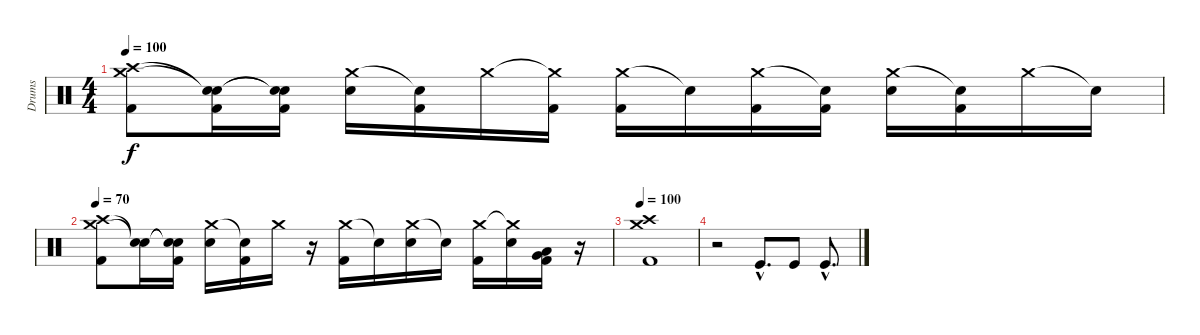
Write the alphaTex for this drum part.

\track ("Drums" "Drums") {instrument percussion}
\staff {score}
\articulation defaults
\ts (4 4)
\tempo 100
\clef neutral
\ks c
("Crash high (hit)" "Crash medium (hit)" "Kick (hit) 2").8{dy f} ("Snare (hit)"{t} "Snare (hit)"{t} "Kick (hit) 2").16 ("Snare (hit)"{t} "Snare (hit)"{t} "Kick (hit) 2").16 ("Crash medium (hit)" "Electric Snare (hit)").16 ("Snare (hit)"{t} "Kick (hit) 2").16 "Crash medium (hit)".16 ("Crash medium (hit)"{t} "Kick (hit) 2").16 ("Crash medium (hit)" "Kick (hit) 2").16 "Snare (hit)"{t}.16 ("Crash medium (hit)" "Kick (hit) 2").16 ("Snare (hit)"{t} "Kick (hit) 2").16 ("Crash medium (hit)" "Electric Snare (hit)").16 ("Snare (hit)"{t} "Kick (hit) 2").16 "Crash medium (hit)".16 "Snare (hit)"{t}.16 |
\tempo 70
("Crash high (hit)" "Crash medium (hit)" "Kick (hit) 2").8 ("Snare (hit)"{t} "Snare (hit)"{t}).16 ("Snare (hit)"{t} "Snare (hit)"{t} "Kick (hit) 2").16 ("Crash medium (hit)" "Electric Snare (hit)").16 ("Snare (hit)"{t} "Kick (hit) 2").16 "Crash medium (hit)".16 r.16 ("Crash medium (hit)" "Kick (hit) 2").16 "Snare (hit)"{t}.16 ("Crash medium (hit)" "Electric Snare (hit)").16 "Snare (hit)"{t}.16 ("Crash medium (hit)" "Kick (hit) 2").16 ("Crash medium (hit)"{t} "Electric Snare (hit)").16 ("Very Low Tom (hit)" "Low Tom (hit)" "Kick (hit) 2").16 r.16 |
\tempo 100
("Crash high (hit)" "Crash medium (hit)" "Kick (hit) 2").1 |
r.2 "Kick (hit)"{hac}.8{d} "Kick (hit)".8 "Kick (hit)"{hac}.8{d}
